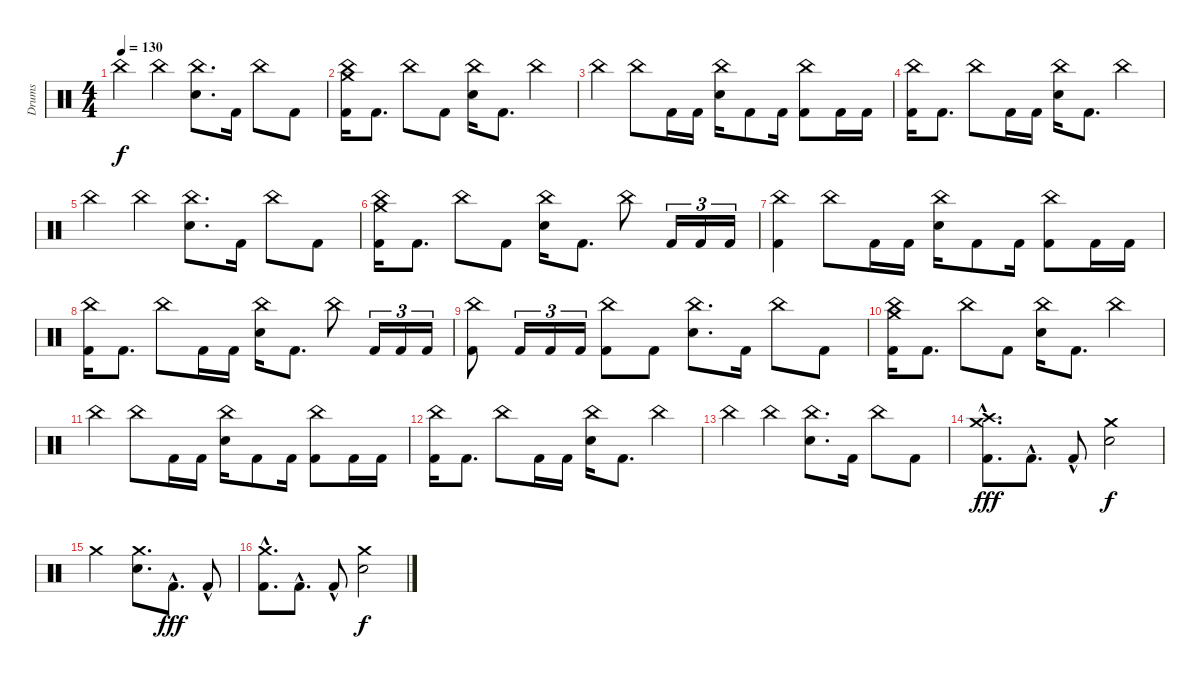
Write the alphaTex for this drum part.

\track ("Drums" "Drums") {instrument percussion}
\staff {score}
\articulation defaults
\ts (4 4)
\tempo 130
\clef neutral
\ks c "China (hit)".4{dy f} "China (hit)".4
("China (hit)" "Electric Snare (hit)").8{d} "Kick (hit) 2".16 "China (hit)".8 "Kick (hit) 2".8 |
("China (hit)" "Crash medium (hit)" "Kick (hit) 2").16 "Kick (hit) 2".8{d} "China (hit)".8 "Kick (hit) 2".8 ("China (hit)" "Electric Snare (hit)").16 "Kick (hit) 2".8{d} "China (hit)".4 |
"China (hit)".4 "China (hit)".8 "Kick (hit) 2".16 "Kick (hit) 2".16 ("China (hit)" "Electric Snare (hit)").16 "Kick (hit) 2".8 "Kick (hit) 2".16 ("China (hit)" "Kick (hit) 2").8 "Kick (hit) 2".16 "Kick (hit) 2".16 |
("China (hit)" "Kick (hit) 2").16 "Kick (hit) 2".8{d} "China (hit)".8 "Kick (hit) 2".16 "Kick (hit) 2".16 ("China (hit)" "Electric Snare (hit)").16 "Kick (hit) 2".8{d} "China (hit)".4 |
"China (hit)".4 "China (hit)".4 ("China (hit)" "Electric Snare (hit)").8{d} "Kick (hit) 2".16 "China (hit)".8 "Kick (hit) 2".8 |
("China (hit)" "Crash medium (hit)" "Kick (hit) 2").16 "Kick (hit) 2".8{d} "China (hit)".8 "Kick (hit) 2".8 ("China (hit)" "Electric Snare (hit)").16 "Kick (hit) 2".8{d} "China (hit)".8 "Kick (hit) 2".16{tu (3 2)} "Kick (hit) 2".16{tu (3 2)} "Kick (hit) 2".16{tu (3 2)} |
("China (hit)" "Kick (hit) 2").4 "China (hit)".8 "Kick (hit) 2".16 "Kick (hit) 2".16 ("China (hit)" "Electric Snare (hit)").16 "Kick (hit) 2".8 "Kick (hit) 2".16 ("China (hit)" "Kick (hit) 2").8 "Kick (hit) 2".16 "Kick (hit) 2".16 |
("China (hit)" "Kick (hit) 2").16 "Kick (hit) 2".8{d} "China (hit)".8 "Kick (hit) 2".16 "Kick (hit) 2".16 ("China (hit)" "Electric Snare (hit)").16 "Kick (hit) 2".8{d} "China (hit)".8 "Kick (hit) 2".16{tu (3 2)} "Kick (hit) 2".16{tu (3 2)} "Kick (hit) 2".16{tu (3 2)} |
("China (hit)" "Kick (hit) 2").8 "Kick (hit) 2".16{tu (3 2)} "Kick (hit) 2".16{tu (3 2)} "Kick (hit) 2".16{tu (3 2)} ("China (hit)" "Kick (hit) 2").8 "Kick (hit) 2".8 ("China (hit)" "Electric Snare (hit)").8{d} "Kick (hit) 2".16 "China (hit)".8 "Kick (hit) 2".8 |
("China (hit)" "Crash medium (hit)" "Kick (hit) 2").16 "Kick (hit) 2".8{d} "China (hit)".8 "Kick (hit) 2".8 ("China (hit)" "Electric Snare (hit)").16 "Kick (hit) 2".8{d} "China (hit)".4 |
"China (hit)".4 "China (hit)".8 "Kick (hit) 2".16 "Kick (hit) 2".16 ("China (hit)" "Electric Snare (hit)").16 "Kick (hit) 2".8 "Kick (hit) 2".16 ("China (hit)" "Kick (hit) 2").8 "Kick (hit) 2".16 "Kick (hit) 2".16 |
("China (hit)" "Kick (hit) 2").16 "Kick (hit) 2".8{d} "China (hit)".8 "Kick (hit) 2".16 "Kick (hit) 2".16 ("China (hit)" "Electric Snare (hit)").16 "Kick (hit) 2".8{d} "China (hit)".4 |
"China (hit)".4 "China (hit)".4 ("China (hit)" "Electric Snare (hit)").8{d} "Kick (hit) 2".16 "China (hit)".8 "Kick (hit) 2".8 |
("Crash medium (hit)" "Crash high (hit)" "Kick (hit) 2"{hac}).8{d dy fff} "Kick (hit) 2"{hac}.8{d} "Kick (hit) 2"{hac}.8 ("Crash medium (hit)" "Electric Snare (hit)").2{dy f} |
"Crash medium (hit)".2 ("Crash medium (hit)" "Electric Snare (hit)").8{d} "Kick (hit) 2"{hac}.8{d dy fff} "Kick (hit) 2"{hac}.8 |
("Crash medium (hit)" "Kick (hit) 2"{hac}).8{d} "Kick (hit) 2"{hac}.8{d} "Kick (hit) 2"{hac}.8 ("Crash medium (hit)" "Electric Snare (hit)").2{dy f}
